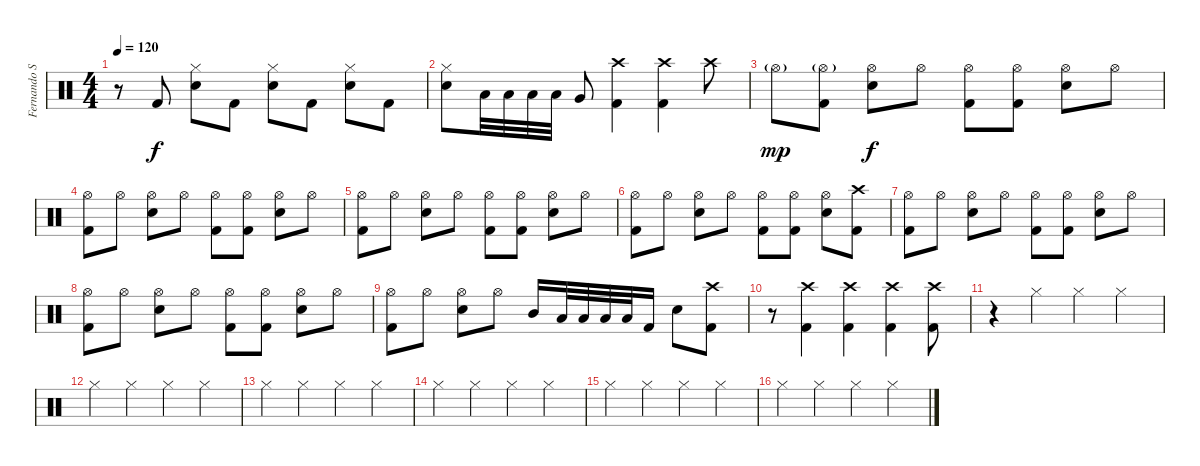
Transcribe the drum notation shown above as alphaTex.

\track ("Fernando Scarcella" "Fernando S") {instrument percussion}
\staff {score}
\articulation defaults
\ts (4 4)
\tempo 120
\clef neutral
\ks c
r.8{dy f} "Kick (hit) 2".8 ("Snare (hit) 2" "Hi-Hat (closed)").8 "Kick (hit) 2".8 ("Snare (hit) 2" "Hi-Hat (closed)").8 "Kick (hit) 2".8 ("Snare (hit) 2" "Hi-Hat (closed)").8 "Kick (hit) 2".8 |
("Snare (hit) 2" "Hi-Hat (closed)").8 "Low Tom (hit)".32 "Low Tom (hit)".32 "Low Tom (hit)".32 "Low Tom (hit)".32 "Very Low Tom (hit)".8 ("Crash high (hit)" "Kick (hit) 2").4 ("Crash high (hit)" "Kick (hit) 2").4 "Crash high (hit)".8 |
"Hi-Hat (open)"{g}.8{dy mp} ("Hi-Hat (open)"{g} "Kick (hit) 2").8 ("Hi-Hat (open)" "Snare (hit) 2").8{dy f} "Hi-Hat (open)".8 ("Hi-Hat (open)" "Kick (hit) 2").8 ("Hi-Hat (open)" "Kick (hit) 2").8 ("Hi-Hat (open)" "Snare (hit) 2").8 "Hi-Hat (open)".8 |
("Hi-Hat (open)" "Kick (hit) 2").8 "Hi-Hat (open)".8 ("Hi-Hat (open)" "Snare (hit) 2").8 "Hi-Hat (open)".8 ("Hi-Hat (open)" "Kick (hit) 2").8 ("Hi-Hat (open)" "Kick (hit) 2").8 ("Hi-Hat (open)" "Snare (hit) 2").8 "Hi-Hat (open)".8 |
("Hi-Hat (open)" "Kick (hit) 2").8 "Hi-Hat (open)".8 ("Hi-Hat (open)" "Snare (hit) 2").8 "Hi-Hat (open)".8 ("Hi-Hat (open)" "Kick (hit) 2").8 ("Hi-Hat (open)" "Kick (hit) 2").8 ("Hi-Hat (open)" "Snare (hit) 2").8 "Hi-Hat (open)".8 |
("Hi-Hat (open)" "Kick (hit) 2").8 "Hi-Hat (open)".8 ("Hi-Hat (open)" "Snare (hit) 2").8 "Hi-Hat (open)".8 ("Hi-Hat (open)" "Kick (hit) 2").8 ("Hi-Hat (open)" "Kick (hit) 2").8 ("Hi-Hat (open)" "Snare (hit) 2").8 ("Crash high (hit)" "Kick (hit) 2").8 |
("Hi-Hat (open)" "Kick (hit) 2").8 "Hi-Hat (open)".8 ("Hi-Hat (open)" "Snare (hit) 2").8 "Hi-Hat (open)".8 ("Hi-Hat (open)" "Kick (hit) 2").8 ("Hi-Hat (open)" "Kick (hit) 2").8 ("Hi-Hat (open)" "Snare (hit) 2").8 "Hi-Hat (open)".8 |
("Hi-Hat (open)" "Kick (hit) 2").8 "Hi-Hat (open)".8 ("Hi-Hat (open)" "Snare (hit) 2").8 "Hi-Hat (open)".8 ("Hi-Hat (open)" "Kick (hit) 2").8 ("Hi-Hat (open)" "Kick (hit) 2").8 ("Hi-Hat (open)" "Snare (hit) 2").8 "Hi-Hat (open)".8 |
("Hi-Hat (open)" "Kick (hit) 2").8 "Hi-Hat (open)".8 ("Hi-Hat (open)" "Snare (hit) 2").8 "Hi-Hat (open)".8 "Mid Tom (hit)".16 "Low Tom (hit)".32 "Low Tom (hit)".32 "Low Tom (hit)".32 "Low Tom (hit)".32 "Kick (hit) 2".16 "Snare (hit) 2".8 ("Crash high (hit)" "Kick (hit) 2").8 |
r.8 ("Crash high (hit)" "Kick (hit) 2").4 ("Crash high (hit)" "Kick (hit) 2").4 ("Crash high (hit)" "Kick (hit) 2").4 ("Crash high (hit)" "Kick (hit) 2").8 |
r.4 "Hi-Hat (closed)".4 "Hi-Hat (closed)".4 "Hi-Hat (closed)".4 |
"Hi-Hat (closed)".4 "Hi-Hat (closed)".4 "Hi-Hat (closed)".4 "Hi-Hat (closed)".4 |
"Hi-Hat (closed)".4 "Hi-Hat (closed)".4 "Hi-Hat (closed)".4 "Hi-Hat (closed)".4 |
"Hi-Hat (closed)".4 "Hi-Hat (closed)".4 "Hi-Hat (closed)".4 "Hi-Hat (closed)".4 |
"Hi-Hat (closed)".4 "Hi-Hat (closed)".4 "Hi-Hat (closed)".4 "Hi-Hat (closed)".4 |
"Hi-Hat (closed)".4 "Hi-Hat (closed)".4 "Hi-Hat (closed)".4 "Hi-Hat (closed)".4
